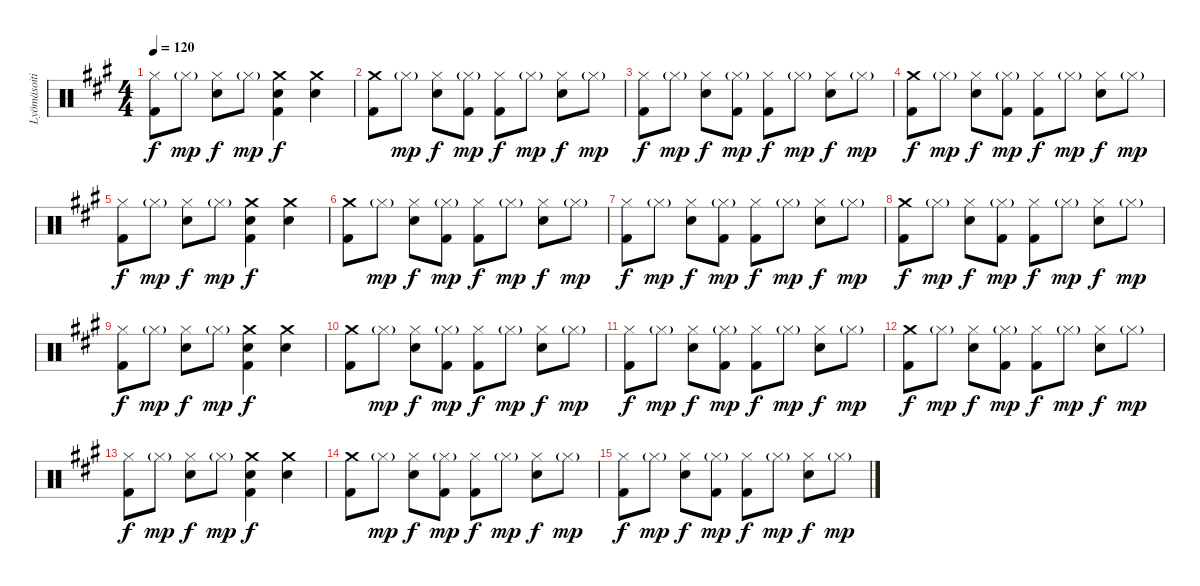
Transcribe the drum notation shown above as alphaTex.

\track ("Lyömäsoitin" "Lyömäsoiti") {instrument percussion}
\staff {score}
\articulation defaults
\ts (4 4)
\tempo 120
\clef neutral
\ks f#minor
("Kick (hit) 2" "Hi-Hat (closed)").8{dy f} "Hi-Hat (closed)"{g}.8{dy mp} ("Hi-Hat (closed)" "Snare (hit) 2").8{dy f} "Hi-Hat (closed)"{g}.8{dy mp} ("Snare (hit) 2" "Crash medium (hit)" "Kick (hit) 2").4{dy f} ("Snare (hit) 2" "Crash medium (hit)").4 |
("Kick (hit) 2" "Crash medium (hit)").8 "Hi-Hat (closed)"{g}.8{dy mp} ("Hi-Hat (closed)" "Snare (hit) 2").8{dy f} ("Hi-Hat (closed)"{g} "Kick (hit) 2").8{dy mp} ("Hi-Hat (closed)" "Kick (hit) 2").8{dy f} "Hi-Hat (closed)"{g}.8{dy mp} ("Hi-Hat (closed)" "Snare (hit) 2").8{dy f} "Hi-Hat (closed)"{g}.8{dy mp} |
("Hi-Hat (closed)" "Kick (hit) 2").8{dy f} "Hi-Hat (closed)"{g}.8{dy mp} ("Hi-Hat (closed)" "Snare (hit) 2").8{dy f} ("Hi-Hat (closed)"{g} "Kick (hit) 2").8{dy mp} ("Hi-Hat (closed)" "Kick (hit) 2").8{dy f} "Hi-Hat (closed)"{g}.8{dy mp} ("Hi-Hat (closed)" "Snare (hit) 2").8{dy f} "Hi-Hat (closed)"{g}.8{dy mp} |
("Kick (hit) 2" "Crash medium (hit)").8{dy f} "Hi-Hat (closed)"{g}.8{dy mp} ("Hi-Hat (closed)" "Snare (hit) 2").8{dy f} ("Hi-Hat (closed)"{g} "Kick (hit) 2").8{dy mp} ("Hi-Hat (closed)" "Kick (hit) 2").8{dy f} "Hi-Hat (closed)"{g}.8{dy mp} ("Hi-Hat (closed)" "Snare (hit) 2").8{dy f} "Hi-Hat (closed)"{g}.8{dy mp} |
("Kick (hit) 2" "Hi-Hat (closed)").8{dy f} "Hi-Hat (closed)"{g}.8{dy mp} ("Hi-Hat (closed)" "Snare (hit) 2").8{dy f} "Hi-Hat (closed)"{g}.8{dy mp} ("Snare (hit) 2" "Crash medium (hit)" "Kick (hit) 2").4{dy f} ("Snare (hit) 2" "Crash medium (hit)").4 |
("Kick (hit) 2" "Crash medium (hit)").8 "Hi-Hat (closed)"{g}.8{dy mp} ("Hi-Hat (closed)" "Snare (hit) 2").8{dy f} ("Hi-Hat (closed)"{g} "Kick (hit) 2").8{dy mp} ("Hi-Hat (closed)" "Kick (hit) 2").8{dy f} "Hi-Hat (closed)"{g}.8{dy mp} ("Hi-Hat (closed)" "Snare (hit) 2").8{dy f} "Hi-Hat (closed)"{g}.8{dy mp} |
("Hi-Hat (closed)" "Kick (hit) 2").8{dy f} "Hi-Hat (closed)"{g}.8{dy mp} ("Hi-Hat (closed)" "Snare (hit) 2").8{dy f} ("Hi-Hat (closed)"{g} "Kick (hit) 2").8{dy mp} ("Hi-Hat (closed)" "Kick (hit) 2").8{dy f} "Hi-Hat (closed)"{g}.8{dy mp} ("Hi-Hat (closed)" "Snare (hit) 2").8{dy f} "Hi-Hat (closed)"{g}.8{dy mp} |
("Kick (hit) 2" "Crash medium (hit)").8{dy f} "Hi-Hat (closed)"{g}.8{dy mp} ("Hi-Hat (closed)" "Snare (hit) 2").8{dy f} ("Hi-Hat (closed)"{g} "Kick (hit) 2").8{dy mp} ("Hi-Hat (closed)" "Kick (hit) 2").8{dy f} "Hi-Hat (closed)"{g}.8{dy mp} ("Hi-Hat (closed)" "Snare (hit) 2").8{dy f} "Hi-Hat (closed)"{g}.8{dy mp} |
("Kick (hit) 2" "Hi-Hat (closed)").8{dy f} "Hi-Hat (closed)"{g}.8{dy mp} ("Hi-Hat (closed)" "Snare (hit) 2").8{dy f} "Hi-Hat (closed)"{g}.8{dy mp} ("Snare (hit) 2" "Crash medium (hit)" "Kick (hit) 2").4{dy f} ("Snare (hit) 2" "Crash medium (hit)").4 |
("Kick (hit) 2" "Crash medium (hit)").8 "Hi-Hat (closed)"{g}.8{dy mp} ("Hi-Hat (closed)" "Snare (hit) 2").8{dy f} ("Hi-Hat (closed)"{g} "Kick (hit) 2").8{dy mp} ("Hi-Hat (closed)" "Kick (hit) 2").8{dy f} "Hi-Hat (closed)"{g}.8{dy mp} ("Hi-Hat (closed)" "Snare (hit) 2").8{dy f} "Hi-Hat (closed)"{g}.8{dy mp} |
("Hi-Hat (closed)" "Kick (hit) 2").8{dy f} "Hi-Hat (closed)"{g}.8{dy mp} ("Hi-Hat (closed)" "Snare (hit) 2").8{dy f} ("Hi-Hat (closed)"{g} "Kick (hit) 2").8{dy mp} ("Hi-Hat (closed)" "Kick (hit) 2").8{dy f} "Hi-Hat (closed)"{g}.8{dy mp} ("Hi-Hat (closed)" "Snare (hit) 2").8{dy f} "Hi-Hat (closed)"{g}.8{dy mp} |
("Kick (hit) 2" "Crash medium (hit)").8{dy f} "Hi-Hat (closed)"{g}.8{dy mp} ("Hi-Hat (closed)" "Snare (hit) 2").8{dy f} ("Hi-Hat (closed)"{g} "Kick (hit) 2").8{dy mp} ("Hi-Hat (closed)" "Kick (hit) 2").8{dy f} "Hi-Hat (closed)"{g}.8{dy mp} ("Hi-Hat (closed)" "Snare (hit) 2").8{dy f} "Hi-Hat (closed)"{g}.8{dy mp} |
("Kick (hit) 2" "Hi-Hat (closed)").8{dy f} "Hi-Hat (closed)"{g}.8{dy mp} ("Hi-Hat (closed)" "Snare (hit) 2").8{dy f} "Hi-Hat (closed)"{g}.8{dy mp} ("Snare (hit) 2" "Crash medium (hit)" "Kick (hit) 2").4{dy f} ("Snare (hit) 2" "Crash medium (hit)").4 |
("Kick (hit) 2" "Crash medium (hit)").8 "Hi-Hat (closed)"{g}.8{dy mp} ("Hi-Hat (closed)" "Snare (hit) 2").8{dy f} ("Hi-Hat (closed)"{g} "Kick (hit) 2").8{dy mp} ("Hi-Hat (closed)" "Kick (hit) 2").8{dy f} "Hi-Hat (closed)"{g}.8{dy mp} ("Hi-Hat (closed)" "Snare (hit) 2").8{dy f} "Hi-Hat (closed)"{g}.8{dy mp} |
("Hi-Hat (closed)" "Kick (hit) 2").8{dy f} "Hi-Hat (closed)"{g}.8{dy mp} ("Hi-Hat (closed)" "Snare (hit) 2").8{dy f} ("Hi-Hat (closed)"{g} "Kick (hit) 2").8{dy mp} ("Hi-Hat (closed)" "Kick (hit) 2").8{dy f} "Hi-Hat (closed)"{g}.8{dy mp} ("Hi-Hat (closed)" "Snare (hit) 2").8{dy f} "Hi-Hat (closed)"{g}.8{dy mp}
